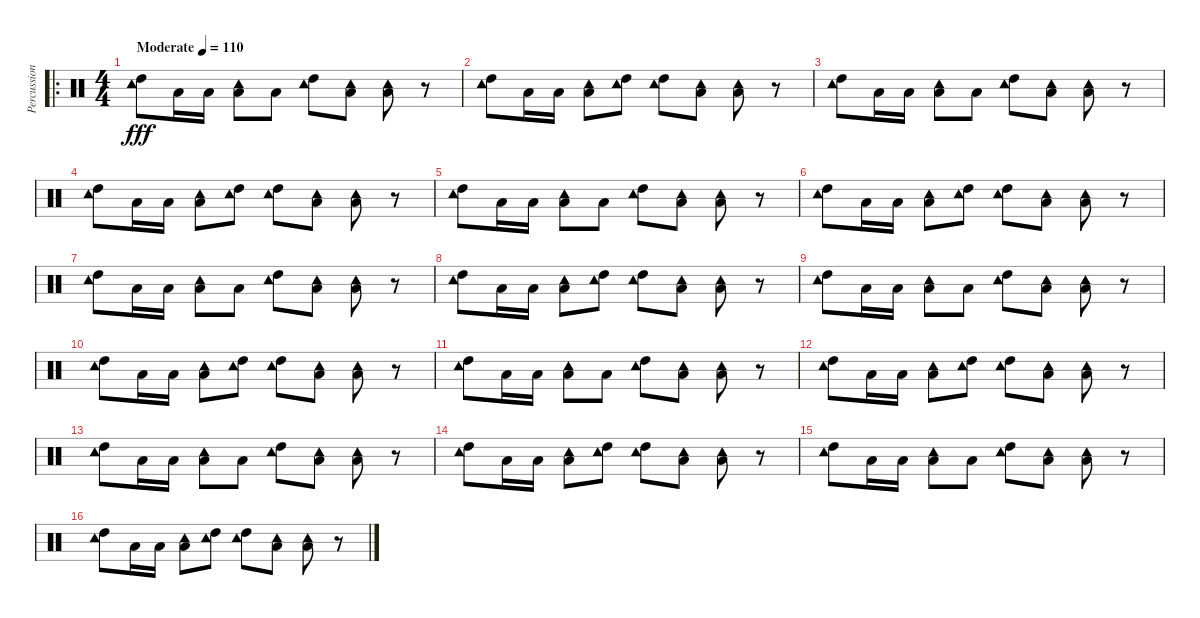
\track ("Percussions" "Percussion") {instrument percussion}
\staff {score}
\articulation defaults
\ro
\ts (4 4)
\tempo (110 "Moderate")
\clef neutral
\ks c
("Tambourine (hit)" "High Tom (hit)").8{dy fff} "Low Tom (hit)".16 "Low Tom (hit)".16 ("Tambourine (hit)" "Low Tom (hit)").8 "Low Tom (hit)".8 ("Tambourine (hit)" "High Tom (hit)").8 ("Tambourine (hit)" "Low Tom (hit)").8 ("Tambourine (hit)" "Low Tom (hit)").8 r.8 |
("Tambourine (hit)" "High Tom (hit)").8 "Low Tom (hit)".16 "Low Tom (hit)".16 ("Tambourine (hit)" "Low Tom (hit)").8 ("Tambourine (hit)" "High Tom (hit)").8 ("Tambourine (hit)" "High Tom (hit)").8 ("Tambourine (hit)" "Low Tom (hit)").8 ("Tambourine (hit)" "Low Tom (hit)").8 r.8 |
("Tambourine (hit)" "High Tom (hit)").8 "Low Tom (hit)".16 "Low Tom (hit)".16 ("Tambourine (hit)" "Low Tom (hit)").8 "Low Tom (hit)".8 ("Tambourine (hit)" "High Tom (hit)").8 ("Tambourine (hit)" "Low Tom (hit)").8 ("Tambourine (hit)" "Low Tom (hit)").8 r.8 |
("Tambourine (hit)" "High Tom (hit)").8 "Low Tom (hit)".16 "Low Tom (hit)".16 ("Tambourine (hit)" "Low Tom (hit)").8 ("Tambourine (hit)" "High Tom (hit)").8 ("Tambourine (hit)" "High Tom (hit)").8 ("Tambourine (hit)" "Low Tom (hit)").8 ("Tambourine (hit)" "Low Tom (hit)").8 r.8 |
("Tambourine (hit)" "High Tom (hit)").8 "Low Tom (hit)".16 "Low Tom (hit)".16 ("Tambourine (hit)" "Low Tom (hit)").8 "Low Tom (hit)".8 ("Tambourine (hit)" "High Tom (hit)").8 ("Tambourine (hit)" "Low Tom (hit)").8 ("Tambourine (hit)" "Low Tom (hit)").8 r.8 |
("Tambourine (hit)" "High Tom (hit)").8 "Low Tom (hit)".16 "Low Tom (hit)".16 ("Tambourine (hit)" "Low Tom (hit)").8 ("Tambourine (hit)" "High Tom (hit)").8 ("Tambourine (hit)" "High Tom (hit)").8 ("Tambourine (hit)" "Low Tom (hit)").8 ("Tambourine (hit)" "Low Tom (hit)").8 r.8 |
("Tambourine (hit)" "High Tom (hit)").8 "Low Tom (hit)".16 "Low Tom (hit)".16 ("Tambourine (hit)" "Low Tom (hit)").8 "Low Tom (hit)".8 ("Tambourine (hit)" "High Tom (hit)").8 ("Tambourine (hit)" "Low Tom (hit)").8 ("Tambourine (hit)" "Low Tom (hit)").8 r.8 |
("Tambourine (hit)" "High Tom (hit)").8 "Low Tom (hit)".16 "Low Tom (hit)".16 ("Tambourine (hit)" "Low Tom (hit)").8 ("Tambourine (hit)" "High Tom (hit)").8 ("Tambourine (hit)" "High Tom (hit)").8 ("Tambourine (hit)" "Low Tom (hit)").8 ("Tambourine (hit)" "Low Tom (hit)").8 r.8 |
("Tambourine (hit)" "High Tom (hit)").8 "Low Tom (hit)".16 "Low Tom (hit)".16 ("Tambourine (hit)" "Low Tom (hit)").8 "Low Tom (hit)".8 ("Tambourine (hit)" "High Tom (hit)").8 ("Tambourine (hit)" "Low Tom (hit)").8 ("Tambourine (hit)" "Low Tom (hit)").8 r.8 |
("Tambourine (hit)" "High Tom (hit)").8 "Low Tom (hit)".16 "Low Tom (hit)".16 ("Tambourine (hit)" "Low Tom (hit)").8 ("Tambourine (hit)" "High Tom (hit)").8 ("Tambourine (hit)" "High Tom (hit)").8 ("Tambourine (hit)" "Low Tom (hit)").8 ("Tambourine (hit)" "Low Tom (hit)").8 r.8 |
("Tambourine (hit)" "High Tom (hit)").8 "Low Tom (hit)".16 "Low Tom (hit)".16 ("Tambourine (hit)" "Low Tom (hit)").8 "Low Tom (hit)".8 ("Tambourine (hit)" "High Tom (hit)").8 ("Tambourine (hit)" "Low Tom (hit)").8 ("Tambourine (hit)" "Low Tom (hit)").8 r.8 |
("Tambourine (hit)" "High Tom (hit)").8 "Low Tom (hit)".16 "Low Tom (hit)".16 ("Tambourine (hit)" "Low Tom (hit)").8 ("Tambourine (hit)" "High Tom (hit)").8 ("Tambourine (hit)" "High Tom (hit)").8 ("Tambourine (hit)" "Low Tom (hit)").8 ("Tambourine (hit)" "Low Tom (hit)").8 r.8 |
("Tambourine (hit)" "High Tom (hit)").8 "Low Tom (hit)".16 "Low Tom (hit)".16 ("Tambourine (hit)" "Low Tom (hit)").8 "Low Tom (hit)".8 ("Tambourine (hit)" "High Tom (hit)").8 ("Tambourine (hit)" "Low Tom (hit)").8 ("Tambourine (hit)" "Low Tom (hit)").8 r.8 |
("Tambourine (hit)" "High Tom (hit)").8 "Low Tom (hit)".16 "Low Tom (hit)".16 ("Tambourine (hit)" "Low Tom (hit)").8 ("Tambourine (hit)" "High Tom (hit)").8 ("Tambourine (hit)" "High Tom (hit)").8 ("Tambourine (hit)" "Low Tom (hit)").8 ("Tambourine (hit)" "Low Tom (hit)").8 r.8 |
("Tambourine (hit)" "High Tom (hit)").8 "Low Tom (hit)".16 "Low Tom (hit)".16 ("Tambourine (hit)" "Low Tom (hit)").8 "Low Tom (hit)".8 ("Tambourine (hit)" "High Tom (hit)").8 ("Tambourine (hit)" "Low Tom (hit)").8 ("Tambourine (hit)" "Low Tom (hit)").8 r.8 |
("Tambourine (hit)" "High Tom (hit)").8 "Low Tom (hit)".16 "Low Tom (hit)".16 ("Tambourine (hit)" "Low Tom (hit)").8 ("Tambourine (hit)" "High Tom (hit)").8 ("Tambourine (hit)" "High Tom (hit)").8 ("Tambourine (hit)" "Low Tom (hit)").8 ("Tambourine (hit)" "Low Tom (hit)").8 r.8
